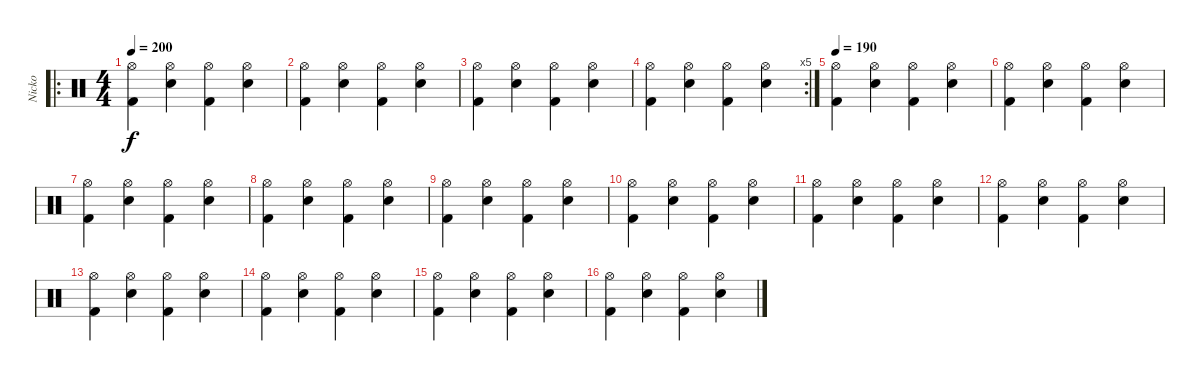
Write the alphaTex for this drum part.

\track ("Nicko" "Nicko") {instrument percussion}
\staff {score}
\articulation defaults
\ro
\ts (4 4)
\tempo 200
\clef neutral
\ks c
("Hi-Hat (open)" "Kick (hit) 2").4{dy f} ("Hi-Hat (open)" "Electric Snare (hit)").4 ("Hi-Hat (open)" "Kick (hit) 2").4 ("Hi-Hat (open)" "Electric Snare (hit)").4 |
("Hi-Hat (open)" "Kick (hit) 2").4 ("Hi-Hat (open)" "Electric Snare (hit)").4 ("Hi-Hat (open)" "Kick (hit) 2").4 ("Hi-Hat (open)" "Electric Snare (hit)").4 |
("Hi-Hat (open)" "Kick (hit) 2").4 ("Hi-Hat (open)" "Electric Snare (hit)").4 ("Hi-Hat (open)" "Kick (hit) 2").4 ("Hi-Hat (open)" "Electric Snare (hit)").4 |
\rc 5
("Hi-Hat (open)" "Kick (hit) 2").4 ("Hi-Hat (open)" "Electric Snare (hit)").4 ("Hi-Hat (open)" "Kick (hit) 2").4 ("Hi-Hat (open)" "Electric Snare (hit)").4 |
\tempo 190
("Hi-Hat (open)" "Kick (hit) 2").4 ("Hi-Hat (open)" "Electric Snare (hit)").4 ("Hi-Hat (open)" "Kick (hit) 2").4 ("Hi-Hat (open)" "Electric Snare (hit)").4 |
("Hi-Hat (open)" "Kick (hit) 2").4 ("Hi-Hat (open)" "Electric Snare (hit)").4 ("Hi-Hat (open)" "Kick (hit) 2").4 ("Hi-Hat (open)" "Electric Snare (hit)").4 |
("Hi-Hat (open)" "Kick (hit) 2").4 ("Hi-Hat (open)" "Electric Snare (hit)").4 ("Hi-Hat (open)" "Kick (hit) 2").4 ("Hi-Hat (open)" "Electric Snare (hit)").4 |
("Hi-Hat (open)" "Kick (hit) 2").4 ("Hi-Hat (open)" "Electric Snare (hit)").4 ("Hi-Hat (open)" "Kick (hit) 2").4 ("Hi-Hat (open)" "Electric Snare (hit)").4 |
("Hi-Hat (open)" "Kick (hit) 2").4 ("Hi-Hat (open)" "Electric Snare (hit)").4 ("Hi-Hat (open)" "Kick (hit) 2").4 ("Hi-Hat (open)" "Electric Snare (hit)").4 |
("Hi-Hat (open)" "Kick (hit) 2").4 ("Hi-Hat (open)" "Electric Snare (hit)").4 ("Hi-Hat (open)" "Kick (hit) 2").4 ("Hi-Hat (open)" "Electric Snare (hit)").4 |
("Hi-Hat (open)" "Kick (hit) 2").4 ("Hi-Hat (open)" "Electric Snare (hit)").4 ("Hi-Hat (open)" "Kick (hit) 2").4 ("Hi-Hat (open)" "Electric Snare (hit)").4 |
("Hi-Hat (open)" "Kick (hit) 2").4 ("Hi-Hat (open)" "Electric Snare (hit)").4 ("Hi-Hat (open)" "Kick (hit) 2").4 ("Hi-Hat (open)" "Electric Snare (hit)").4 |
("Hi-Hat (open)" "Kick (hit) 2").4 ("Hi-Hat (open)" "Electric Snare (hit)").4 ("Hi-Hat (open)" "Kick (hit) 2").4 ("Hi-Hat (open)" "Electric Snare (hit)").4 |
("Hi-Hat (open)" "Kick (hit) 2").4 ("Hi-Hat (open)" "Electric Snare (hit)").4 ("Hi-Hat (open)" "Kick (hit) 2").4 ("Hi-Hat (open)" "Electric Snare (hit)").4 |
("Hi-Hat (open)" "Kick (hit) 2").4 ("Hi-Hat (open)" "Electric Snare (hit)").4 ("Hi-Hat (open)" "Kick (hit) 2").4 ("Hi-Hat (open)" "Electric Snare (hit)").4 |
("Hi-Hat (open)" "Kick (hit) 2").4 ("Hi-Hat (open)" "Electric Snare (hit)").4 ("Hi-Hat (open)" "Kick (hit) 2").4 ("Hi-Hat (open)" "Electric Snare (hit)").4
